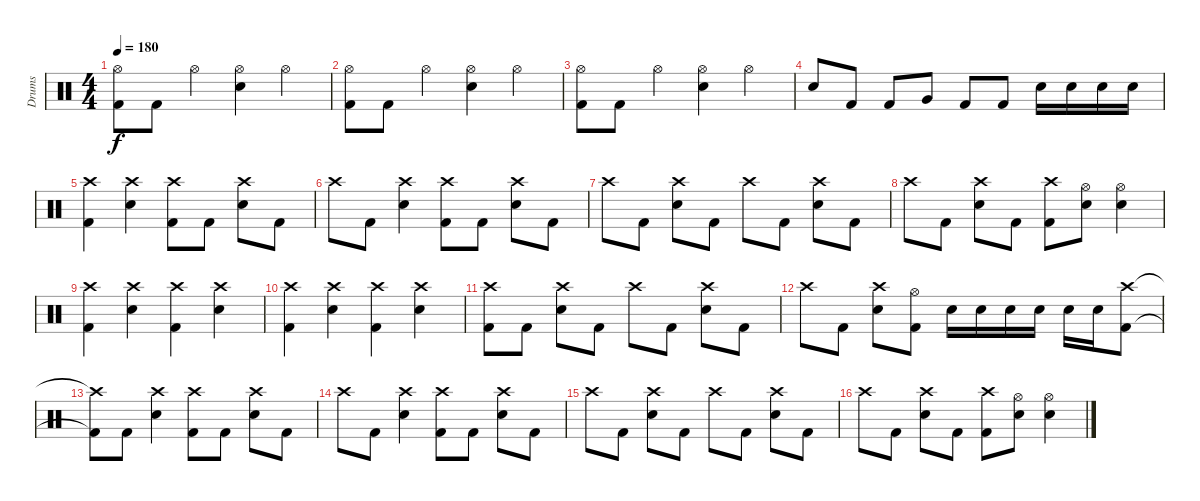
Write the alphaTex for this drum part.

\track ("Drums" "Drums") {instrument percussion}
\staff {score}
\articulation defaults
\ts (4 4)
\tempo 180
\clef neutral
\ks c
("Hi-Hat (open)" "Kick (hit) 2").8{dy f} "Kick (hit) 2".8 "Hi-Hat (open)".4 ("Hi-Hat (open)" "Electric Snare (hit)").4 "Hi-Hat (open)".4 |
("Hi-Hat (open)" "Kick (hit) 2").8 "Kick (hit) 2".8 "Hi-Hat (open)".4 ("Hi-Hat (open)" "Electric Snare (hit)").4 "Hi-Hat (open)".4 |
("Hi-Hat (open)" "Kick (hit) 2").8 "Kick (hit) 2".8 "Hi-Hat (open)".4 ("Hi-Hat (open)" "Electric Snare (hit)").4 "Hi-Hat (open)".4 |
"Electric Snare (hit)".8 "Kick (hit) 2".8 "Kick (hit) 2".8 "Very Low Tom (hit)".8 "Kick (hit) 2".8 "Kick (hit) 2".8 "Electric Snare (hit)".16 "Electric Snare (hit)".16 "Electric Snare (hit)".16 "Electric Snare (hit)".16 |
("Crash high (hit)" "Kick (hit) 2").4 ("Crash high (hit)" "Electric Snare (hit)").4 ("Crash high (hit)" "Kick (hit) 2").8 "Kick (hit) 2".8 ("Crash high (hit)" "Electric Snare (hit)").8 "Kick (hit) 2".8 |
"Crash high (hit)".8 "Kick (hit) 2".8 ("Crash high (hit)" "Electric Snare (hit)").4 ("Crash high (hit)" "Kick (hit) 2").8 "Kick (hit) 2".8 ("Crash high (hit)" "Electric Snare (hit)").8 "Kick (hit) 2".8 |
"Crash high (hit)".8 "Kick (hit) 2".8 ("Crash high (hit)" "Electric Snare (hit)").8 "Kick (hit) 2".8 "Crash high (hit)".8 "Kick (hit) 2".8 ("Crash high (hit)" "Electric Snare (hit)").8 "Kick (hit) 2".8 |
"Crash high (hit)".8 "Kick (hit) 2".8 ("Crash high (hit)" "Electric Snare (hit)").8 "Kick (hit) 2".8 ("Crash high (hit)" "Kick (hit) 2").8 ("Hi-Hat (open)" "Electric Snare (hit)").8 ("Hi-Hat (open)" "Electric Snare (hit)").4 |
("Crash high (hit)" "Kick (hit) 2").4 ("Crash high (hit)" "Electric Snare (hit)").4 ("Crash high (hit)" "Kick (hit) 2").4 ("Crash high (hit)" "Electric Snare (hit)").4 |
("Crash high (hit)" "Kick (hit) 2").4 ("Crash high (hit)" "Electric Snare (hit)").4 ("Crash high (hit)" "Kick (hit) 2").4 ("Crash high (hit)" "Electric Snare (hit)").4 |
("Crash high (hit)" "Kick (hit) 2").8 "Kick (hit) 2".8 ("Crash high (hit)" "Electric Snare (hit)").8 "Kick (hit) 2".8 "Crash high (hit)".8 "Kick (hit) 2".8 ("Crash high (hit)" "Electric Snare (hit)").8 "Kick (hit) 2".8 |
"Crash high (hit)".8 "Kick (hit) 2".8 ("Crash high (hit)" "Electric Snare (hit)").8 ("Hi-Hat (open)" "Kick (hit) 2").8 "Electric Snare (hit)".16 "Electric Snare (hit)".16 "Electric Snare (hit)".16 "Electric Snare (hit)".16 "Electric Snare (hit)".16 "Electric Snare (hit)".16 ("Crash high (hit)" "Kick (hit) 2").8 |
("Crash high (hit)"{t} "Kick (hit) 2"{t}).8 "Kick (hit) 2".8 ("Crash high (hit)" "Electric Snare (hit)").4 ("Crash high (hit)" "Kick (hit) 2").8 "Kick (hit) 2".8 ("Crash high (hit)" "Electric Snare (hit)").8 "Kick (hit) 2".8 |
"Crash high (hit)".8 "Kick (hit) 2".8 ("Crash high (hit)" "Electric Snare (hit)").4 ("Crash high (hit)" "Kick (hit) 2").8 "Kick (hit) 2".8 ("Crash high (hit)" "Electric Snare (hit)").8 "Kick (hit) 2".8 |
"Crash high (hit)".8 "Kick (hit) 2".8 ("Crash high (hit)" "Electric Snare (hit)").8 "Kick (hit) 2".8 "Crash high (hit)".8 "Kick (hit) 2".8 ("Crash high (hit)" "Electric Snare (hit)").8 "Kick (hit) 2".8 |
"Crash high (hit)".8 "Kick (hit) 2".8 ("Crash high (hit)" "Electric Snare (hit)").8 "Kick (hit) 2".8 ("Crash high (hit)" "Kick (hit) 2").8 ("Hi-Hat (open)" "Electric Snare (hit)").8 ("Hi-Hat (open)" "Electric Snare (hit)").4
